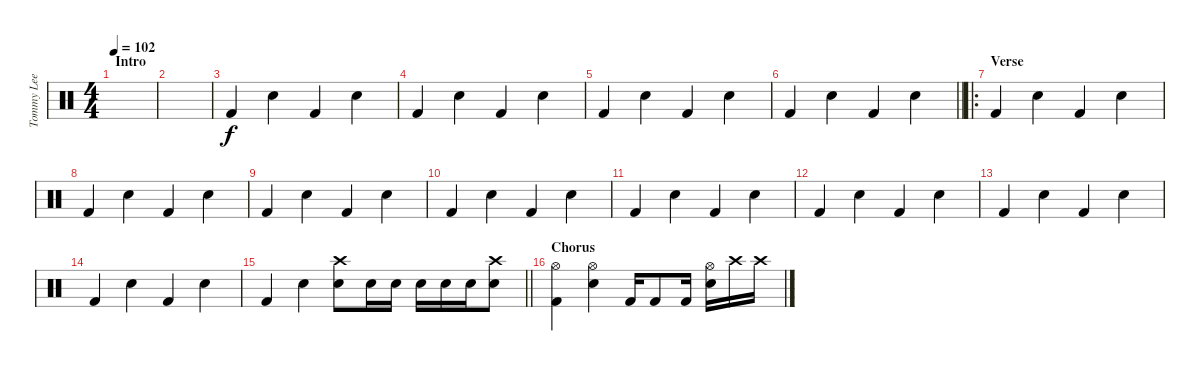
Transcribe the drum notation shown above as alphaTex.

\track ("Tommy Lee" "Tommy Lee") {instrument percussion}
\staff {score}
\articulation defaults
\ts (4 4)
\section ("" "Intro")
\tempo 102
\clef neutral
\ks c
|
|
"Kick (hit) 2".4 "Snare (hit) 2".4 "Kick (hit) 2".4 "Snare (hit) 2".4 |
"Kick (hit) 2".4 "Snare (hit) 2".4 "Kick (hit) 2".4 "Snare (hit) 2".4 |
"Kick (hit) 2".4 "Snare (hit) 2".4 "Kick (hit) 2".4 "Snare (hit) 2".4 |
\barLineRight lightlight "Kick (hit) 2".4 "Snare (hit) 2".4 "Kick (hit) 2".4 "Snare (hit) 2".4
|
\ro
\section ("" "Verse")
"Kick (hit) 2".4 "Snare (hit) 2".4 "Kick (hit) 2".4 "Snare (hit) 2".4 |
"Kick (hit) 2".4 "Snare (hit) 2".4 "Kick (hit) 2".4 "Snare (hit) 2".4 |
"Kick (hit) 2".4 "Snare (hit) 2".4 "Kick (hit) 2".4 "Snare (hit) 2".4 |
"Kick (hit) 2".4 "Snare (hit) 2".4 "Kick (hit) 2".4 "Snare (hit) 2".4 |
"Kick (hit) 2".4 "Snare (hit) 2".4 "Kick (hit) 2".4 "Snare (hit) 2".4 |
"Kick (hit) 2".4 "Snare (hit) 2".4 "Kick (hit) 2".4 "Snare (hit) 2".4 |
"Kick (hit) 2".4 "Snare (hit) 2".4 "Kick (hit) 2".4 "Snare (hit) 2".4 |
"Kick (hit) 2".4 "Snare (hit) 2".4 "Kick (hit) 2".4 "Snare (hit) 2".4 |
\barLineRight lightlight "Kick (hit) 2".4 "Snare (hit) 2".4
("Crash high (hit)" "Snare (hit) 2").8 "Electric Snare (hit)".16 "Electric Snare (hit)".16 "Electric Snare (hit)".16 "Electric Snare (hit)".16 "Electric Snare (hit)".16 ("Crash high (hit)" "Electric Snare (hit)").8 |
\section ("" "Chorus")
("Hi-Hat (open)" "Kick (hit) 2").4 ("Hi-Hat (open)" "Snare (hit) 2").4 "Kick (hit) 2".16 "Kick (hit) 2".8 "Kick (hit) 2".16 ("Hi-Hat (open)" "Snare (hit) 2").16 "Crash high (hit)".16 "Crash high (hit)".16
